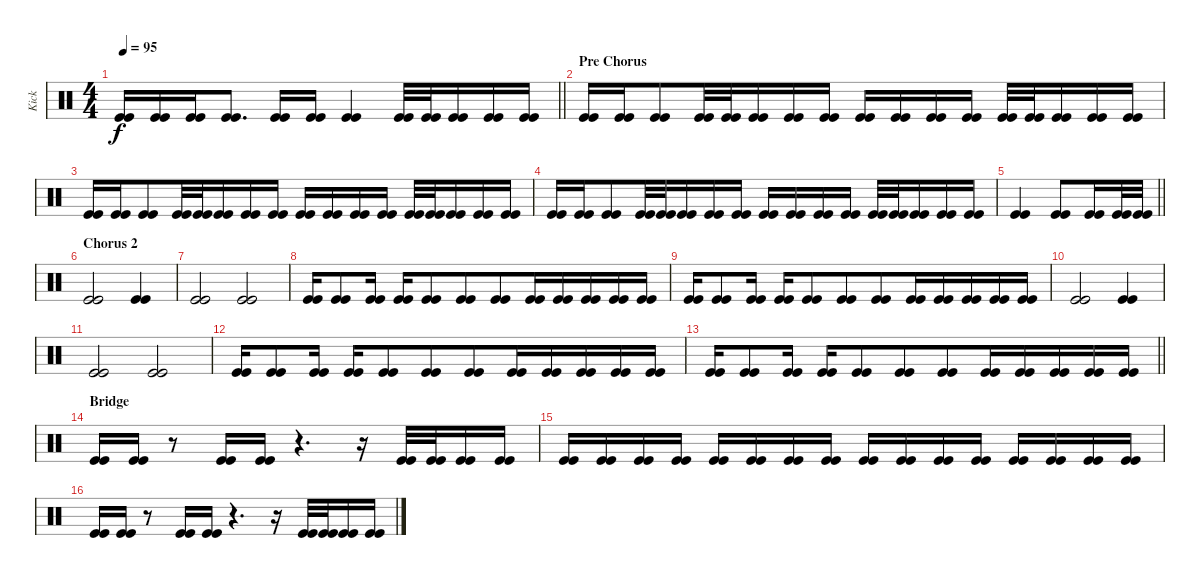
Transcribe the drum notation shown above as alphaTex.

\track ("Kick" "Kick") {instrument percussion}
\staff {score}
\articulation defaults
\ts (4 4)
\tempo 95
\clef neutral
\barLineRight lightlight
\ks c
("Kick (hit)" "Kick (hit)").16{dy f beam merge} ("Kick (hit)" "Kick (hit)").16 ("Kick (hit)" "Kick (hit)").16 ("Kick (hit)" "Kick (hit)").8{d} ("Kick (hit)" "Kick (hit)").16 ("Kick (hit)" "Kick (hit)").16 ("Kick (hit)" "Kick (hit)").4 ("Kick (hit)" "Kick (hit)").32 ("Kick (hit)" "Kick (hit)").32 ("Kick (hit)" "Kick (hit)").16{beam merge} ("Kick (hit)" "Kick (hit)").16 ("Kick (hit)" "Kick (hit)").16 |
\section ("" "Pre Chorus")
("Kick (hit)" "Kick (hit)").16{beam merge} ("Kick (hit)" "Kick (hit)").16 ("Kick (hit)" "Kick (hit)").8{beam merge} ("Kick (hit)" "Kick (hit)").32 ("Kick (hit)" "Kick (hit)").32 ("Kick (hit)" "Kick (hit)").16 ("Kick (hit)" "Kick (hit)").16 ("Kick (hit)" "Kick (hit)").16 ("Kick (hit)" "Kick (hit)").16 ("Kick (hit)" "Kick (hit)").16 ("Kick (hit)" "Kick (hit)").16 ("Kick (hit)" "Kick (hit)").16 ("Kick (hit)" "Kick (hit)").32{beam merge} ("Kick (hit)" "Kick (hit)").32 ("Kick (hit)" "Kick (hit)").16{beam merge} ("Kick (hit)" "Kick (hit)").16 ("Kick (hit)" "Kick (hit)").16 |
("Kick (hit)" "Kick (hit)").16{beam merge} ("Kick (hit)" "Kick (hit)").16 ("Kick (hit)" "Kick (hit)").8{beam merge} ("Kick (hit)" "Kick (hit)").32 ("Kick (hit)" "Kick (hit)").32 ("Kick (hit)" "Kick (hit)").16 ("Kick (hit)" "Kick (hit)").16 ("Kick (hit)" "Kick (hit)").16 ("Kick (hit)" "Kick (hit)").16 ("Kick (hit)" "Kick (hit)").16 ("Kick (hit)" "Kick (hit)").16 ("Kick (hit)" "Kick (hit)").16 ("Kick (hit)" "Kick (hit)").32{beam merge} ("Kick (hit)" "Kick (hit)").32 ("Kick (hit)" "Kick (hit)").16{beam merge} ("Kick (hit)" "Kick (hit)").16 ("Kick (hit)" "Kick (hit)").16 |
("Kick (hit)" "Kick (hit)").16{beam merge} ("Kick (hit)" "Kick (hit)").16 ("Kick (hit)" "Kick (hit)").8{beam merge} ("Kick (hit)" "Kick (hit)").32 ("Kick (hit)" "Kick (hit)").32 ("Kick (hit)" "Kick (hit)").16 ("Kick (hit)" "Kick (hit)").16 ("Kick (hit)" "Kick (hit)").16 ("Kick (hit)" "Kick (hit)").16 ("Kick (hit)" "Kick (hit)").16 ("Kick (hit)" "Kick (hit)").16 ("Kick (hit)" "Kick (hit)").16 ("Kick (hit)" "Kick (hit)").32{beam merge} ("Kick (hit)" "Kick (hit)").32 ("Kick (hit)" "Kick (hit)").16{beam merge} ("Kick (hit)" "Kick (hit)").16 ("Kick (hit)" "Kick (hit)").16 |
\barLineRight lightlight
("Kick (hit)" "Kick (hit)").4 ("Kick (hit)" "Kick (hit)").8 ("Kick (hit)" "Kick (hit)").16 ("Kick (hit)" "Kick (hit)").32{beam merge} ("Kick (hit)" "Kick (hit)").32 |
\section ("" "Chorus 2")
("Kick (hit)" "Kick (hit)").2 ("Kick (hit)" "Kick (hit)").4 |
("Kick (hit)" "Kick (hit)").2 ("Kick (hit)" "Kick (hit)").2 |
("Kick (hit)" "Kick (hit)").16 ("Kick (hit)" "Kick (hit)").8 ("Kick (hit)" "Kick (hit)").16 ("Kick (hit)" "Kick (hit)").16 ("Kick (hit)" "Kick (hit)").8 ("Kick (hit)" "Kick (hit)").8{beam merge} ("Kick (hit)" "Kick (hit)").8 ("Kick (hit)" "Kick (hit)").16{beam merge} ("Kick (hit)" "Kick (hit)").16{beam merge} ("Kick (hit)" "Kick (hit)").16 ("Kick (hit)" "Kick (hit)").16 ("Kick (hit)" "Kick (hit)").16 |
("Kick (hit)" "Kick (hit)").16 ("Kick (hit)" "Kick (hit)").8 ("Kick (hit)" "Kick (hit)").16 ("Kick (hit)" "Kick (hit)").16 ("Kick (hit)" "Kick (hit)").8 ("Kick (hit)" "Kick (hit)").8{beam merge} ("Kick (hit)" "Kick (hit)").8 ("Kick (hit)" "Kick (hit)").16{beam merge} ("Kick (hit)" "Kick (hit)").16{beam merge} ("Kick (hit)" "Kick (hit)").16 ("Kick (hit)" "Kick (hit)").16 ("Kick (hit)" "Kick (hit)").16 |
("Kick (hit)" "Kick (hit)").2 ("Kick (hit)" "Kick (hit)").4 |
("Kick (hit)" "Kick (hit)").2 ("Kick (hit)" "Kick (hit)").2 |
("Kick (hit)" "Kick (hit)").16 ("Kick (hit)" "Kick (hit)").8 ("Kick (hit)" "Kick (hit)").16 ("Kick (hit)" "Kick (hit)").16 ("Kick (hit)" "Kick (hit)").8 ("Kick (hit)" "Kick (hit)").8{beam merge} ("Kick (hit)" "Kick (hit)").8 ("Kick (hit)" "Kick (hit)").16{beam merge} ("Kick (hit)" "Kick (hit)").16{beam merge} ("Kick (hit)" "Kick (hit)").16 ("Kick (hit)" "Kick (hit)").16 ("Kick (hit)" "Kick (hit)").16 |
\barLineRight lightlight
("Kick (hit)" "Kick (hit)").16 ("Kick (hit)" "Kick (hit)").8 ("Kick (hit)" "Kick (hit)").16 ("Kick (hit)" "Kick (hit)").16 ("Kick (hit)" "Kick (hit)").8 ("Kick (hit)" "Kick (hit)").8{beam merge} ("Kick (hit)" "Kick (hit)").8 ("Kick (hit)" "Kick (hit)").16{beam merge} ("Kick (hit)" "Kick (hit)").16{beam merge} ("Kick (hit)" "Kick (hit)").16 ("Kick (hit)" "Kick (hit)").16 ("Kick (hit)" "Kick (hit)").16 |
\section ("" "Bridge")
("Kick (hit)" "Kick (hit)").16 ("Kick (hit)" "Kick (hit)").16 r.8{beam merge} ("Kick (hit)" "Kick (hit)").16 ("Kick (hit)" "Kick (hit)").16 r.4{d} r.16 ("Kick (hit)" "Kick (hit)").32{beam merge} ("Kick (hit)" "Kick (hit)").32{beam merge} ("Kick (hit)" "Kick (hit)").16 ("Kick (hit)" "Kick (hit)").16 |
("Kick (hit)" "Kick (hit)").16{beam merge} ("Kick (hit)" "Kick (hit)").16 ("Kick (hit)" "Kick (hit)").16 ("Kick (hit)" "Kick (hit)").16 ("Kick (hit)" "Kick (hit)").16 ("Kick (hit)" "Kick (hit)").16 ("Kick (hit)" "Kick (hit)").16 ("Kick (hit)" "Kick (hit)").16 ("Kick (hit)" "Kick (hit)").16 ("Kick (hit)" "Kick (hit)").16 ("Kick (hit)" "Kick (hit)").16 ("Kick (hit)" "Kick (hit)").16 ("Kick (hit)" "Kick (hit)").16 ("Kick (hit)" "Kick (hit)").16 ("Kick (hit)" "Kick (hit)").16 ("Kick (hit)" "Kick (hit)").16 |
("Kick (hit)" "Kick (hit)").16 ("Kick (hit)" "Kick (hit)").16 r.8{beam merge} ("Kick (hit)" "Kick (hit)").16 ("Kick (hit)" "Kick (hit)").16 r.4{d} r.16 ("Kick (hit)" "Kick (hit)").32{beam merge} ("Kick (hit)" "Kick (hit)").32{beam merge} ("Kick (hit)" "Kick (hit)").16 ("Kick (hit)" "Kick (hit)").16
